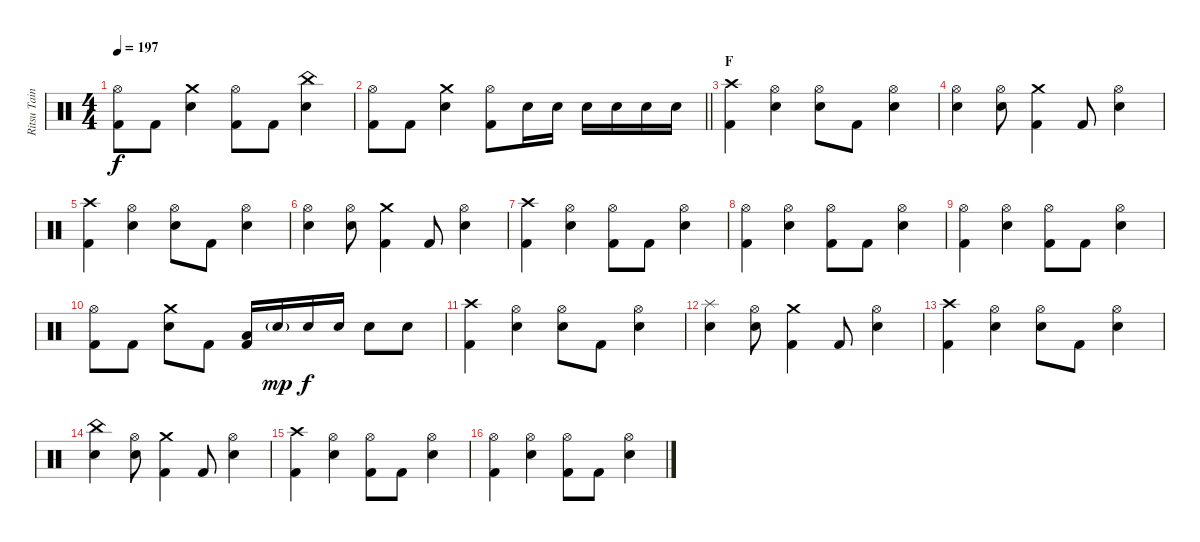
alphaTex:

\track ("Ritsu Tainaka" "Ritsu Tain") {instrument percussion}
\staff {score}
\articulation defaults
\ts (4 4)
\tempo 197
\clef neutral
\ks c
("Hi-Hat (open)" "Kick (hit) 2").8{dy f} "Kick (hit) 2".8 ("Crash medium (hit)" "Electric Snare (hit)").4 ("Hi-Hat (open)" "Kick (hit) 2").8 "Kick (hit) 2".8 ("China (hit)" "Electric Snare (hit)").4 |
\barLineRight lightlight
("Hi-Hat (open)" "Kick (hit) 2").8 "Kick (hit) 2".8 ("Crash medium (hit)" "Electric Snare (hit)").4 ("Hi-Hat (open)" "Kick (hit) 2").8 "Electric Snare (hit)".16 "Electric Snare (hit)".16 "Electric Snare (hit)".16 "Electric Snare (hit)".16 "Electric Snare (hit)".16 "Electric Snare (hit)".16 |
\section ("" "F")
("Crash high (hit)" "Kick (hit) 2").4 ("Hi-Hat (open)" "Electric Snare (hit)").4 ("Hi-Hat (open)" "Electric Snare (hit)").8 "Kick (hit) 2".8 ("Hi-Hat (open)" "Electric Snare (hit)").4 |
("Hi-Hat (open)" "Electric Snare (hit)").4 ("Hi-Hat (open)" "Electric Snare (hit)").8 ("Crash medium (hit)" "Kick (hit) 2").4 "Kick (hit) 2".8 ("Hi-Hat (open)" "Electric Snare (hit)").4 |
("Crash high (hit)" "Kick (hit) 2").4 ("Hi-Hat (open)" "Electric Snare (hit)").4 ("Hi-Hat (open)" "Electric Snare (hit)").8 "Kick (hit) 2".8 ("Hi-Hat (open)" "Electric Snare (hit)").4 |
("Hi-Hat (open)" "Electric Snare (hit)").4 ("Hi-Hat (open)" "Electric Snare (hit)").8 ("Crash medium (hit)" "Kick (hit) 2").4 "Kick (hit) 2".8 ("Hi-Hat (open)" "Electric Snare (hit)").4 |
("Crash high (hit)" "Kick (hit) 2").4 ("Hi-Hat (open)" "Electric Snare (hit)").4 ("Hi-Hat (open)" "Kick (hit) 2").8 "Kick (hit) 2".8 ("Hi-Hat (open)" "Electric Snare (hit)").4 |
("Hi-Hat (open)" "Kick (hit) 2").4 ("Hi-Hat (open)" "Electric Snare (hit)").4 ("Hi-Hat (open)" "Kick (hit) 2").8 "Kick (hit) 2".8 ("Hi-Hat (open)" "Electric Snare (hit)").4 |
("Hi-Hat (open)" "Kick (hit) 2").4 ("Hi-Hat (open)" "Electric Snare (hit)").4 ("Hi-Hat (open)" "Kick (hit) 2").8 "Kick (hit) 2".8 ("Hi-Hat (open)" "Electric Snare (hit)").4 |
("Hi-Hat (open)" "Kick (hit) 2").8 "Kick (hit) 2".8 ("Crash medium (hit)" "Electric Snare (hit)").8 "Kick (hit) 2".8 ("Low Tom (hit)" "Kick (hit) 2").16 "Electric Snare (hit)"{g}.16{dy mp} "Electric Snare (hit)".16{dy f} "Electric Snare (hit)".16 "Electric Snare (hit)".8 "Electric Snare (hit)".8 |
("Crash high (hit)" "Kick (hit) 2").4 ("Hi-Hat (open)" "Electric Snare (hit)").4 ("Hi-Hat (open)" "Electric Snare (hit)").8 "Kick (hit) 2".8 ("Hi-Hat (open)" "Electric Snare (hit)").4 |
("Splash (hit)" "Electric Snare (hit)").4 ("Hi-Hat (open)" "Electric Snare (hit)").8 ("Crash medium (hit)" "Kick (hit) 2").4 "Kick (hit) 2".8 ("Hi-Hat (open)" "Electric Snare (hit)").4 |
("Crash high (hit)" "Kick (hit) 2").4 ("Hi-Hat (open)" "Electric Snare (hit)").4 ("Hi-Hat (open)" "Electric Snare (hit)").8 "Kick (hit) 2".8 ("Hi-Hat (open)" "Electric Snare (hit)").4 |
("China (hit)" "Electric Snare (hit)").4 ("Hi-Hat (open)" "Electric Snare (hit)").8 ("Crash medium (hit)" "Kick (hit) 2").4 "Kick (hit) 2".8 ("Hi-Hat (open)" "Electric Snare (hit)").4 |
("Crash high (hit)" "Kick (hit) 2").4 ("Hi-Hat (open)" "Electric Snare (hit)").4 ("Hi-Hat (open)" "Kick (hit) 2").8 "Kick (hit) 2".8 ("Hi-Hat (open)" "Electric Snare (hit)").4 |
("Hi-Hat (open)" "Kick (hit) 2").4 ("Hi-Hat (open)" "Electric Snare (hit)").4 ("Hi-Hat (open)" "Kick (hit) 2").8 "Kick (hit) 2".8 ("Hi-Hat (open)" "Electric Snare (hit)").4
